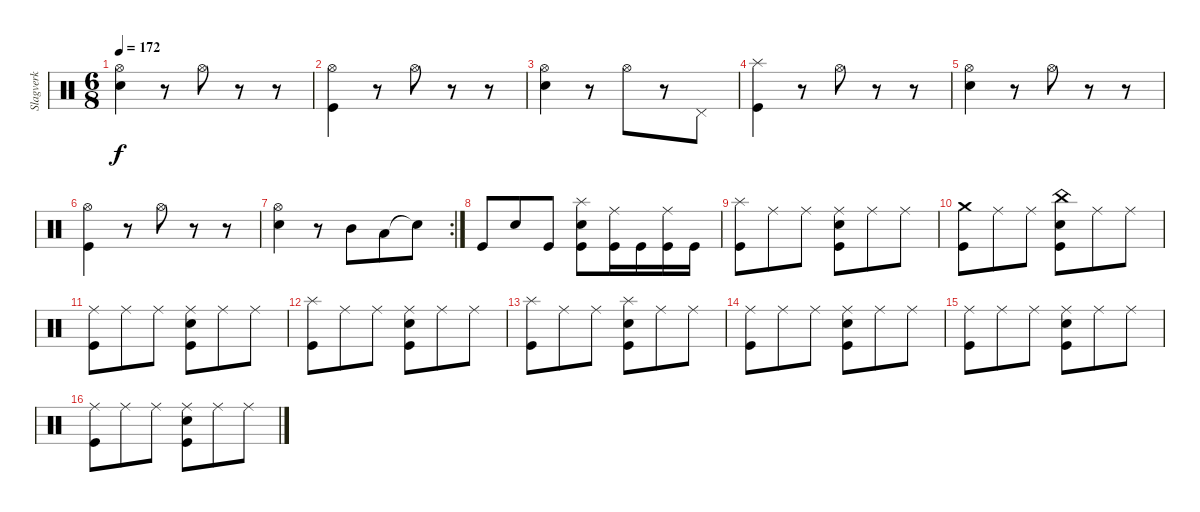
\track ("Slagverk" "Slagverk") {instrument percussion}
\staff {score}
\articulation defaults
\ts (6 8)
\tempo 172
\clef neutral
\ks c
("Hi-Hat (open)" "Snare (hit) 2").4{dy f} r.8 "Hi-Hat (open)".8 r.8 r.8 |
("Hi-Hat (open)" "Kick (hit)").4 r.8 "Hi-Hat (open)".8 r.8 r.8 |
("Hi-Hat (open)" "Snare (hit) 2").4 r.8 "Hi-Hat (open)".8 r.8 "Pedal Hi-Hat (hit)".8 |
("Splash (hit)" "Kick (hit)").4 r.8 "Hi-Hat (open)".8 r.8 r.8 |
("Hi-Hat (open)" "Snare (hit) 2").4 r.8 "Hi-Hat (open)".8 r.8 r.8 |
("Hi-Hat (open)" "Kick (hit)").4 r.8 "Hi-Hat (open)".8 r.8 r.8 |
\rc 2
("Hi-Hat (open)" "Snare (hit) 2").4 r.8 "Mid Tom (hit)".8 "Low Tom (hit)".8 "Snare (hit)"{t}.8 |
"Kick (hit)".8 "Snare (hit) 2".8 "Kick (hit)".8 ("Splash (hit)" "Snare (hit) 2" "Kick (hit)").8 ("Ride (middle)" "Kick (hit)").16 "Kick (hit)".16 ("Ride (middle)" "Kick (hit)").16 "Kick (hit)".16 |
("Splash (hit)" "Kick (hit)").8 "Ride (middle)".8 "Ride (middle)".8 ("Ride (middle)" "Snare (hit) 2" "Kick (hit)").8 "Ride (middle)".8 "Ride (middle)".8 |
("Crash medium (hit)" "Kick (hit)").8 "Ride (middle)".8 "Ride (middle)".8 ("China (hit)" "Snare (hit) 2" "Kick (hit)").8 "Ride (middle)".8 "Ride (middle)".8 |
("Ride (middle)" "Kick (hit)").8 "Ride (middle)".8 "Ride (middle)".8 ("Ride (middle)" "Snare (hit) 2" "Kick (hit)").8 "Ride (middle)".8 "Ride (middle)".8 |
("Splash (hit)" "Kick (hit)").8 "Ride (middle)".8 "Ride (middle)".8 ("Ride (middle)" "Snare (hit) 2" "Kick (hit)").8 "Ride (middle)".8 "Ride (middle)".8 |
("Splash (hit)" "Kick (hit)").8 "Ride (middle)".8 "Ride (middle)".8 ("Splash (hit)" "Snare (hit) 2" "Kick (hit)").8 "Ride (middle)".8 "Ride (middle)".8 |
("Ride (middle)" "Kick (hit)").8 "Ride (middle)".8 "Ride (middle)".8 ("Ride (middle)" "Snare (hit) 2" "Kick (hit)").8 "Ride (middle)".8 "Ride (middle)".8 |
("Ride (middle)" "Kick (hit)").8 "Ride (middle)".8 "Ride (middle)".8 ("Ride (middle)" "Snare (hit) 2" "Kick (hit)").8 "Ride (middle)".8 "Ride (middle)".8 |
("Ride (middle)" "Kick (hit)").8 "Ride (middle)".8 "Ride (middle)".8 ("Ride (middle)" "Snare (hit) 2" "Kick (hit)").8 "Ride (middle)".8 "Ride (middle)".8
